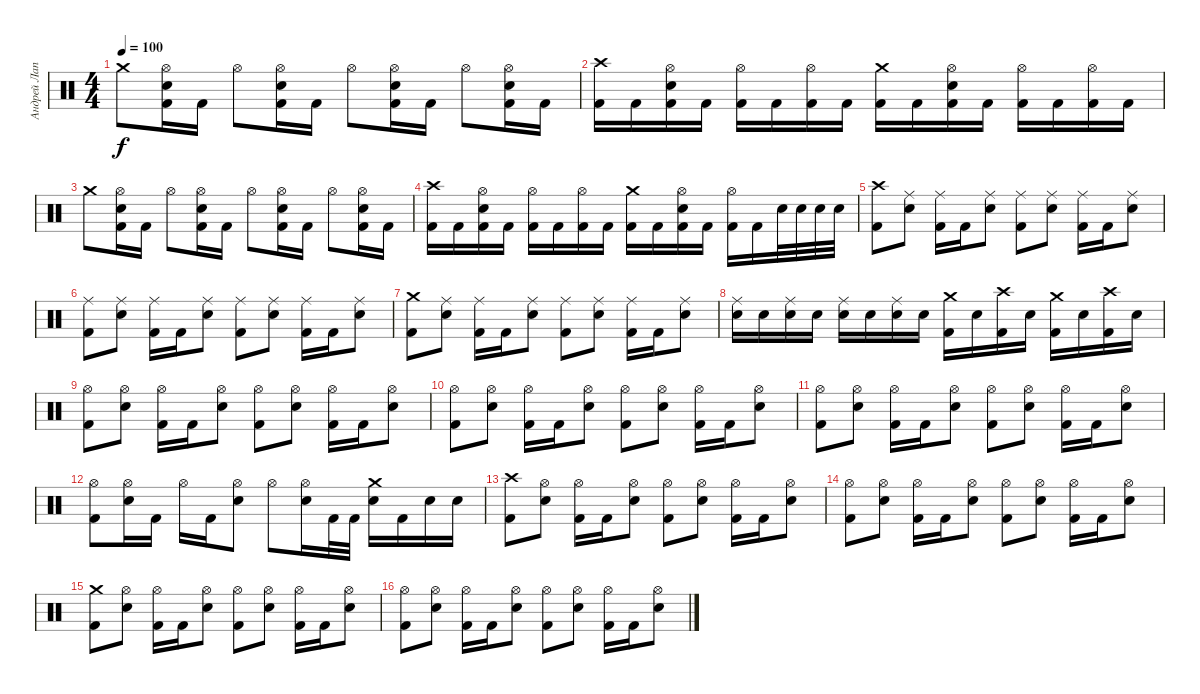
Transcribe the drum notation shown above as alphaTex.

\track ("Андрей Лаптев" "Андрей Лап") {instrument percussion}
\staff {score}
\articulation defaults
\ts (4 4)
\tempo 100
\clef neutral
\ks c "Crash medium (hit)".8{dy f}
("Hi-Hat (open)" "Snare (hit) 2" "Kick (hit) 2").16 "Kick (hit) 2".16 "Hi-Hat (open)".8 ("Hi-Hat (open)" "Snare (hit) 2" "Kick (hit) 2").16 "Kick (hit) 2".16 "Hi-Hat (open)".8 ("Hi-Hat (open)" "Snare (hit) 2" "Kick (hit) 2").16 "Kick (hit) 2".16 "Hi-Hat (open)".8 ("Hi-Hat (open)" "Snare (hit) 2" "Kick (hit) 2").16 "Kick (hit) 2".16 |
("Crash high (hit)" "Kick (hit) 2").16 "Kick (hit) 2".16 ("Hi-Hat (open)" "Snare (hit) 2" "Kick (hit) 2").16 "Kick (hit) 2".16 ("Hi-Hat (open)" "Kick (hit) 2").16 "Kick (hit) 2".16 ("Hi-Hat (open)" "Kick (hit) 2").16 "Kick (hit) 2".16 ("Crash medium (hit)" "Kick (hit) 2").16 "Kick (hit) 2".16 ("Hi-Hat (open)" "Snare (hit) 2" "Kick (hit) 2").16 "Kick (hit) 2".16 ("Hi-Hat (open)" "Kick (hit) 2").16 "Kick (hit) 2".16 ("Hi-Hat (open)" "Kick (hit) 2").16 "Kick (hit) 2".16 |
"Crash medium (hit)".8 ("Hi-Hat (open)" "Snare (hit) 2" "Kick (hit) 2").16 "Kick (hit) 2".16 "Hi-Hat (open)".8 ("Hi-Hat (open)" "Snare (hit) 2" "Kick (hit) 2").16 "Kick (hit) 2".16 "Hi-Hat (open)".8 ("Hi-Hat (open)" "Snare (hit) 2" "Kick (hit) 2").16 "Kick (hit) 2".16 "Hi-Hat (open)".8 ("Hi-Hat (open)" "Snare (hit) 2" "Kick (hit) 2").16 "Kick (hit) 2".16 |
("Crash high (hit)" "Kick (hit) 2").16 "Kick (hit) 2".16 ("Hi-Hat (open)" "Snare (hit) 2" "Kick (hit) 2").16 "Kick (hit) 2".16 ("Hi-Hat (open)" "Kick (hit) 2").16 "Kick (hit) 2".16 ("Hi-Hat (open)" "Kick (hit) 2").16 "Kick (hit) 2".16 ("Crash medium (hit)" "Kick (hit) 2").16 "Kick (hit) 2".16 ("Hi-Hat (open)" "Snare (hit) 2" "Kick (hit) 2").16 "Kick (hit) 2".16 ("Hi-Hat (open)" "Kick (hit) 2").16 "Kick (hit) 2".16 "Snare (hit) 2".32 "Snare (hit) 2".32 "Snare (hit) 2".32 "Snare (hit) 2".32 |
("Crash high (hit)" "Kick (hit) 2").8 ("Ride (middle)" "Snare (hit) 2").8 ("Ride (middle)" "Kick (hit) 2").16 "Kick (hit) 2".16 ("Ride (middle)" "Snare (hit) 2").8 ("Ride (middle)" "Kick (hit) 2").8 ("Ride (middle)" "Snare (hit) 2").8 ("Ride (middle)" "Kick (hit) 2").16 "Kick (hit) 2".16 ("Ride (middle)" "Snare (hit) 2").8 |
("Ride (middle)" "Kick (hit) 2").8 ("Ride (middle)" "Snare (hit) 2").8 ("Ride (middle)" "Kick (hit) 2").16 "Kick (hit) 2".16 ("Ride (middle)" "Snare (hit) 2").8 ("Ride (middle)" "Kick (hit) 2").8 ("Ride (middle)" "Snare (hit) 2").8 ("Ride (middle)" "Kick (hit) 2").16 "Kick (hit) 2".16 ("Ride (middle)" "Snare (hit) 2").8 |
("Crash medium (hit)" "Kick (hit) 2").8 ("Ride (middle)" "Snare (hit) 2").8 ("Ride (middle)" "Kick (hit) 2").16 "Kick (hit) 2".16 ("Ride (middle)" "Snare (hit) 2").8 ("Ride (middle)" "Kick (hit) 2").8 ("Ride (middle)" "Snare (hit) 2").8 ("Ride (middle)" "Kick (hit) 2").16 "Kick (hit) 2".16 ("Ride (middle)" "Snare (hit) 2").8 |
("Ride (middle)" "Snare (hit) 2").16 "Snare (hit) 2".16 ("Ride (middle)" "Snare (hit) 2").16 "Snare (hit) 2".16 ("Ride (middle)" "Snare (hit) 2").16 "Snare (hit) 2".16 ("Ride (middle)" "Snare (hit) 2").16 "Snare (hit) 2".16 ("Crash medium (hit)" "Kick (hit) 2").16 "Snare (hit) 2".16 ("Crash high (hit)" "Kick (hit) 2").16 "Snare (hit) 2".16 ("Crash medium (hit)" "Kick (hit) 2").16 "Snare (hit) 2".16 ("Crash high (hit)" "Kick (hit) 2").16 "Snare (hit) 2".16 |
("Hi-Hat (open)" "Kick (hit) 2").8 ("Hi-Hat (open)" "Snare (hit) 2").8 ("Hi-Hat (open)" "Kick (hit) 2").16 "Kick (hit) 2".16 ("Hi-Hat (open)" "Snare (hit) 2").8 ("Hi-Hat (open)" "Kick (hit) 2").8 ("Hi-Hat (open)" "Snare (hit) 2").8 ("Hi-Hat (open)" "Kick (hit) 2").16 "Kick (hit) 2".16 ("Hi-Hat (open)" "Snare (hit) 2").8 |
("Hi-Hat (open)" "Kick (hit) 2").8 ("Hi-Hat (open)" "Snare (hit) 2").8 ("Hi-Hat (open)" "Kick (hit) 2").16 "Kick (hit) 2".16 ("Hi-Hat (open)" "Snare (hit) 2").8 ("Hi-Hat (open)" "Kick (hit) 2").8 ("Hi-Hat (open)" "Snare (hit) 2").8 ("Hi-Hat (open)" "Kick (hit) 2").16 "Kick (hit) 2".16 ("Hi-Hat (open)" "Snare (hit) 2").8 |
("Hi-Hat (open)" "Kick (hit) 2").8 ("Hi-Hat (open)" "Snare (hit) 2").8 ("Hi-Hat (open)" "Kick (hit) 2").16 "Kick (hit) 2".16 ("Hi-Hat (open)" "Snare (hit) 2").8 ("Hi-Hat (open)" "Kick (hit) 2").8 ("Hi-Hat (open)" "Snare (hit) 2").8 ("Hi-Hat (open)" "Kick (hit) 2").16 "Kick (hit) 2".16 ("Hi-Hat (open)" "Snare (hit) 2").8 |
("Hi-Hat (open)" "Kick (hit) 2").8 ("Hi-Hat (open)" "Snare (hit) 2").16 "Kick (hit) 2".16 "Hi-Hat (open)".16 "Kick (hit) 2".16 ("Hi-Hat (open)" "Snare (hit) 2").8 "Hi-Hat (open)".8 ("Hi-Hat (open)" "Snare (hit) 2").16 "Kick (hit) 2".32 "Kick (hit) 2".32 ("Crash medium (hit)" "Snare (hit) 2").16 "Kick (hit) 2".16 "Snare (hit) 2".16 "Snare (hit) 2".16 |
("Crash high (hit)" "Kick (hit) 2").8 ("Hi-Hat (open)" "Snare (hit) 2").8 ("Hi-Hat (open)" "Kick (hit) 2").16 "Kick (hit) 2".16 ("Hi-Hat (open)" "Snare (hit) 2").8 ("Hi-Hat (open)" "Kick (hit) 2").8 ("Hi-Hat (open)" "Snare (hit) 2").8 ("Hi-Hat (open)" "Kick (hit) 2").16 "Kick (hit) 2".16 ("Hi-Hat (open)" "Snare (hit) 2").8 |
("Hi-Hat (open)" "Kick (hit) 2").8 ("Hi-Hat (open)" "Snare (hit) 2").8 ("Hi-Hat (open)" "Kick (hit) 2").16 "Kick (hit) 2".16 ("Hi-Hat (open)" "Snare (hit) 2").8 ("Hi-Hat (open)" "Kick (hit) 2").8 ("Hi-Hat (open)" "Snare (hit) 2").8 ("Hi-Hat (open)" "Kick (hit) 2").16 "Kick (hit) 2".16 ("Hi-Hat (open)" "Snare (hit) 2").8 |
("Crash medium (hit)" "Kick (hit) 2").8 ("Hi-Hat (open)" "Snare (hit) 2").8 ("Hi-Hat (open)" "Kick (hit) 2").16 "Kick (hit) 2".16 ("Hi-Hat (open)" "Snare (hit) 2").8 ("Hi-Hat (open)" "Kick (hit) 2").8 ("Hi-Hat (open)" "Snare (hit) 2").8 ("Hi-Hat (open)" "Kick (hit) 2").16 "Kick (hit) 2".16 ("Hi-Hat (open)" "Snare (hit) 2").8 |
("Hi-Hat (open)" "Kick (hit) 2").8 ("Hi-Hat (open)" "Snare (hit) 2").8 ("Hi-Hat (open)" "Kick (hit) 2").16 "Kick (hit) 2".16 ("Hi-Hat (open)" "Snare (hit) 2").8 ("Hi-Hat (open)" "Kick (hit) 2").8 ("Hi-Hat (open)" "Snare (hit) 2").8 ("Hi-Hat (open)" "Kick (hit) 2").16 "Kick (hit) 2".16 ("Hi-Hat (open)" "Snare (hit) 2").8
